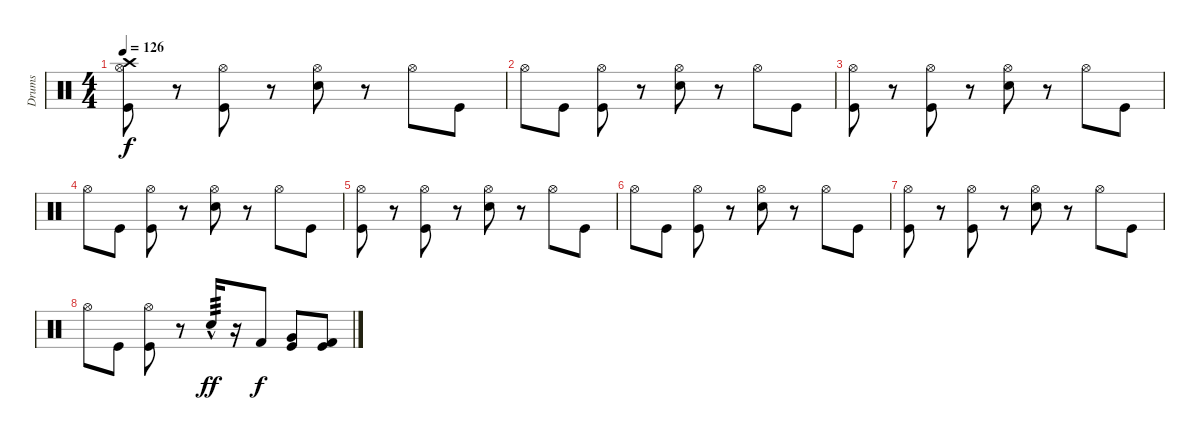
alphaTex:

\track ("Drums" "Drums") {instrument percussion}
\staff {score}
\articulation defaults
\ts (4 4)
\tempo 126
\clef neutral
\ks c
("Crash high (hit)" "Hi-Hat (open)" "Kick (hit)").8{dy f} r.8 ("Hi-Hat (open)" "Kick (hit)").8 r.8 ("Hi-Hat (open)" "Electric Snare (hit)").8 r.8 "Hi-Hat (open)".8 "Kick (hit)".8 |
"Hi-Hat (open)".8 "Kick (hit)".8 ("Hi-Hat (open)" "Kick (hit)").8 r.8 ("Hi-Hat (open)" "Electric Snare (hit)").8 r.8 "Hi-Hat (open)".8 "Kick (hit)".8 |
("Hi-Hat (open)" "Kick (hit)").8 r.8 ("Hi-Hat (open)" "Kick (hit)").8 r.8 ("Hi-Hat (open)" "Electric Snare (hit)").8 r.8 "Hi-Hat (open)".8 "Kick (hit)".8 |
"Hi-Hat (open)".8 "Kick (hit)".8 ("Hi-Hat (open)" "Kick (hit)").8 r.8 ("Hi-Hat (open)" "Electric Snare (hit)").8 r.8 "Hi-Hat (open)".8 "Kick (hit)".8 |
("Hi-Hat (open)" "Kick (hit)").8 r.8 ("Hi-Hat (open)" "Kick (hit)").8 r.8 ("Hi-Hat (open)" "Electric Snare (hit)").8 r.8 "Hi-Hat (open)".8 "Kick (hit)".8 |
"Hi-Hat (open)".8 "Kick (hit)".8 ("Hi-Hat (open)" "Kick (hit)").8 r.8 ("Hi-Hat (open)" "Electric Snare (hit)").8 r.8 "Hi-Hat (open)".8 "Kick (hit)".8 |
("Hi-Hat (open)" "Kick (hit)").8 r.8 ("Hi-Hat (open)" "Kick (hit)").8 r.8 ("Hi-Hat (open)" "Electric Snare (hit)").8 r.8 "Hi-Hat (open)".8 "Kick (hit)".8 |
"Hi-Hat (open)".8 "Kick (hit)".8 ("Hi-Hat (open)" "Kick (hit)").8 r.8 "Electric Snare (hit)"{hac}.16{tp 3 dy ff} r.16 "Kick (hit) 2".8{dy f} ("Very Low Tom (hit)" "Kick (hit)").8 ("Kick (hit)" "Kick (hit) 2").8
